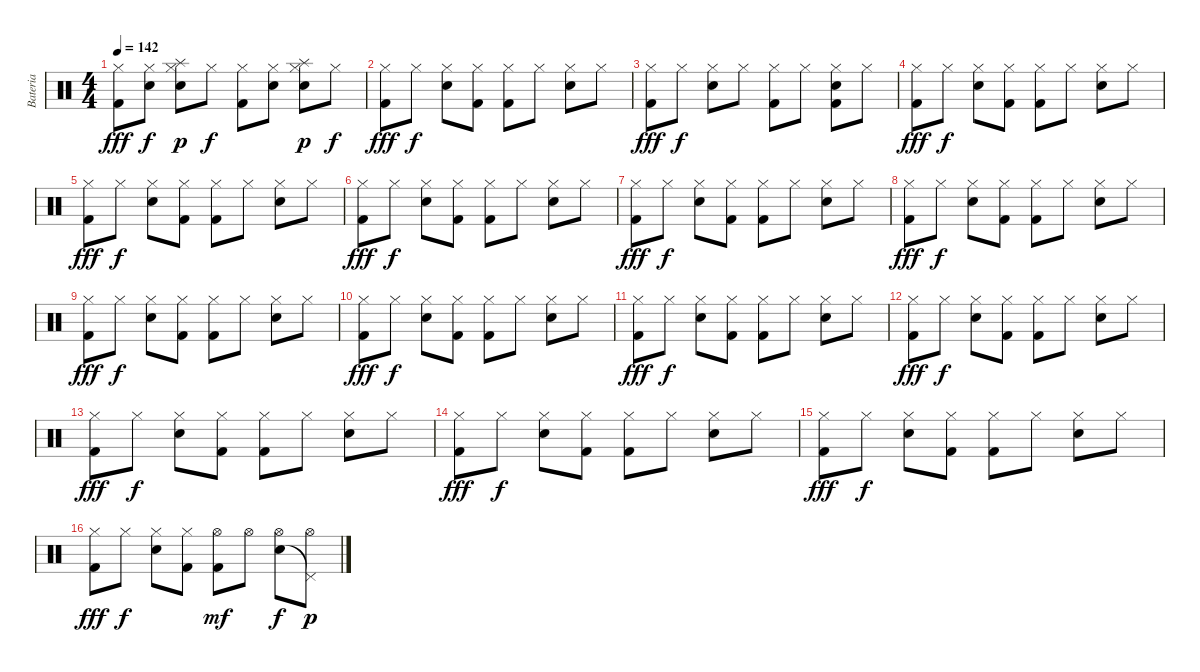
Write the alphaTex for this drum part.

\track ("Bateria" "Bateria") {instrument percussion}
\staff {score}
\articulation defaults
\ts (4 4)
\tempo 142
\clef neutral
\ks c
("Hi-Hat (closed)" "Kick (hit) 2").8{dy fff} ("Hi-Hat (closed)" "Electric Snare (hit)").8{dy f} ("Splash (hit)" "Hi-Hat (closed)" "Electric Snare (hit)").8{dy p} "Hi-Hat (closed)".8{dy f} ("Hi-Hat (closed)" "Kick (hit) 2").8 ("Hi-Hat (closed)" "Electric Snare (hit)").8 ("Splash (hit)" "Hi-Hat (closed)" "Electric Snare (hit)").8{dy p} "Hi-Hat (closed)".8{dy f} |
("Hi-Hat (closed)" "Kick (hit) 2").8{dy fff} "Hi-Hat (closed)".8{dy f} ("Hi-Hat (closed)" "Electric Snare (hit)").8 ("Hi-Hat (closed)" "Kick (hit) 2").8 ("Hi-Hat (closed)" "Kick (hit) 2").8 "Hi-Hat (closed)".8 ("Hi-Hat (closed)" "Electric Snare (hit)").8 "Hi-Hat (closed)".8 |
("Hi-Hat (closed)" "Kick (hit) 2").8{dy fff} "Hi-Hat (closed)".8{dy f} ("Hi-Hat (closed)" "Electric Snare (hit)").8 "Hi-Hat (closed)".8 ("Hi-Hat (closed)" "Kick (hit) 2").8 "Hi-Hat (closed)".8 ("Hi-Hat (closed)" "Electric Snare (hit)" "Kick (hit) 2").8 "Hi-Hat (closed)".8 |
("Hi-Hat (closed)" "Kick (hit) 2").8{dy fff} "Hi-Hat (closed)".8{dy f} ("Hi-Hat (closed)" "Electric Snare (hit)").8 ("Hi-Hat (closed)" "Kick (hit) 2").8 ("Hi-Hat (closed)" "Kick (hit) 2").8 "Hi-Hat (closed)".8 ("Hi-Hat (closed)" "Electric Snare (hit)").8 "Hi-Hat (closed)".8 |
("Hi-Hat (closed)" "Kick (hit) 2").8{dy fff} "Hi-Hat (closed)".8{dy f} ("Hi-Hat (closed)" "Electric Snare (hit)").8 ("Hi-Hat (closed)" "Kick (hit) 2").8 ("Hi-Hat (closed)" "Kick (hit) 2").8 "Hi-Hat (closed)".8 ("Hi-Hat (closed)" "Electric Snare (hit)").8 "Hi-Hat (closed)".8 |
("Hi-Hat (closed)" "Kick (hit) 2").8{dy fff} "Hi-Hat (closed)".8{dy f} ("Hi-Hat (closed)" "Electric Snare (hit)").8 ("Hi-Hat (closed)" "Kick (hit) 2").8 ("Hi-Hat (closed)" "Kick (hit) 2").8 "Hi-Hat (closed)".8 ("Hi-Hat (closed)" "Electric Snare (hit)").8 "Hi-Hat (closed)".8 |
("Hi-Hat (closed)" "Kick (hit) 2").8{dy fff} "Hi-Hat (closed)".8{dy f} ("Hi-Hat (closed)" "Electric Snare (hit)").8 ("Hi-Hat (closed)" "Kick (hit) 2").8 ("Hi-Hat (closed)" "Kick (hit) 2").8 "Hi-Hat (closed)".8 ("Hi-Hat (closed)" "Electric Snare (hit)").8 "Hi-Hat (closed)".8 |
("Hi-Hat (closed)" "Kick (hit) 2").8{dy fff} "Hi-Hat (closed)".8{dy f} ("Hi-Hat (closed)" "Electric Snare (hit)").8 ("Hi-Hat (closed)" "Kick (hit) 2").8 ("Hi-Hat (closed)" "Kick (hit) 2").8 "Hi-Hat (closed)".8 ("Hi-Hat (closed)" "Electric Snare (hit)").8 "Hi-Hat (closed)".8 |
("Hi-Hat (closed)" "Kick (hit) 2").8{dy fff} "Hi-Hat (closed)".8{dy f} ("Hi-Hat (closed)" "Electric Snare (hit)").8 ("Hi-Hat (closed)" "Kick (hit) 2").8 ("Hi-Hat (closed)" "Kick (hit) 2").8 "Hi-Hat (closed)".8 ("Hi-Hat (closed)" "Electric Snare (hit)").8 "Hi-Hat (closed)".8 |
("Hi-Hat (closed)" "Kick (hit) 2").8{dy fff} "Hi-Hat (closed)".8{dy f} ("Hi-Hat (closed)" "Electric Snare (hit)").8 ("Hi-Hat (closed)" "Kick (hit) 2").8 ("Hi-Hat (closed)" "Kick (hit) 2").8 "Hi-Hat (closed)".8 ("Hi-Hat (closed)" "Electric Snare (hit)").8 "Hi-Hat (closed)".8 |
("Hi-Hat (closed)" "Kick (hit) 2").8{dy fff} "Hi-Hat (closed)".8{dy f} ("Hi-Hat (closed)" "Electric Snare (hit)").8 ("Hi-Hat (closed)" "Kick (hit) 2").8 ("Hi-Hat (closed)" "Kick (hit) 2").8 "Hi-Hat (closed)".8 ("Hi-Hat (closed)" "Electric Snare (hit)").8 "Hi-Hat (closed)".8 |
("Hi-Hat (closed)" "Kick (hit) 2").8{dy fff} "Hi-Hat (closed)".8{dy f} ("Hi-Hat (closed)" "Electric Snare (hit)").8 ("Hi-Hat (closed)" "Kick (hit) 2").8 ("Hi-Hat (closed)" "Kick (hit) 2").8 "Hi-Hat (closed)".8 ("Hi-Hat (closed)" "Electric Snare (hit)").8 "Hi-Hat (closed)".8 |
("Hi-Hat (closed)" "Kick (hit) 2").8{dy fff} "Hi-Hat (closed)".8{dy f} ("Hi-Hat (closed)" "Electric Snare (hit)").8 ("Hi-Hat (closed)" "Kick (hit) 2").8 ("Hi-Hat (closed)" "Kick (hit) 2").8 "Hi-Hat (closed)".8 ("Hi-Hat (closed)" "Electric Snare (hit)").8 "Hi-Hat (closed)".8 |
("Hi-Hat (closed)" "Kick (hit) 2").8{dy fff} "Hi-Hat (closed)".8{dy f} ("Hi-Hat (closed)" "Electric Snare (hit)").8 ("Hi-Hat (closed)" "Kick (hit) 2").8 ("Hi-Hat (closed)" "Kick (hit) 2").8 "Hi-Hat (closed)".8 ("Hi-Hat (closed)" "Electric Snare (hit)").8 "Hi-Hat (closed)".8 |
("Hi-Hat (closed)" "Kick (hit) 2").8{dy fff} "Hi-Hat (closed)".8{dy f} ("Hi-Hat (closed)" "Electric Snare (hit)").8 ("Hi-Hat (closed)" "Kick (hit) 2").8 ("Hi-Hat (closed)" "Kick (hit) 2").8 "Hi-Hat (closed)".8 ("Hi-Hat (closed)" "Electric Snare (hit)").8 "Hi-Hat (closed)".8 |
("Hi-Hat (closed)" "Kick (hit) 2").8{dy fff} "Hi-Hat (closed)".8{dy f} ("Hi-Hat (closed)" "Electric Snare (hit)").8 ("Hi-Hat (closed)" "Kick (hit) 2").8 ("Hi-Hat (open)" "Kick (hit) 2").8{dy mf} "Hi-Hat (open)".8 ("Hi-Hat (open)" "Electric Snare (hit)").8{dy f} ("Hi-Hat (open)" "Pedal Hi-Hat (hit)"{t}).8{dy p}
